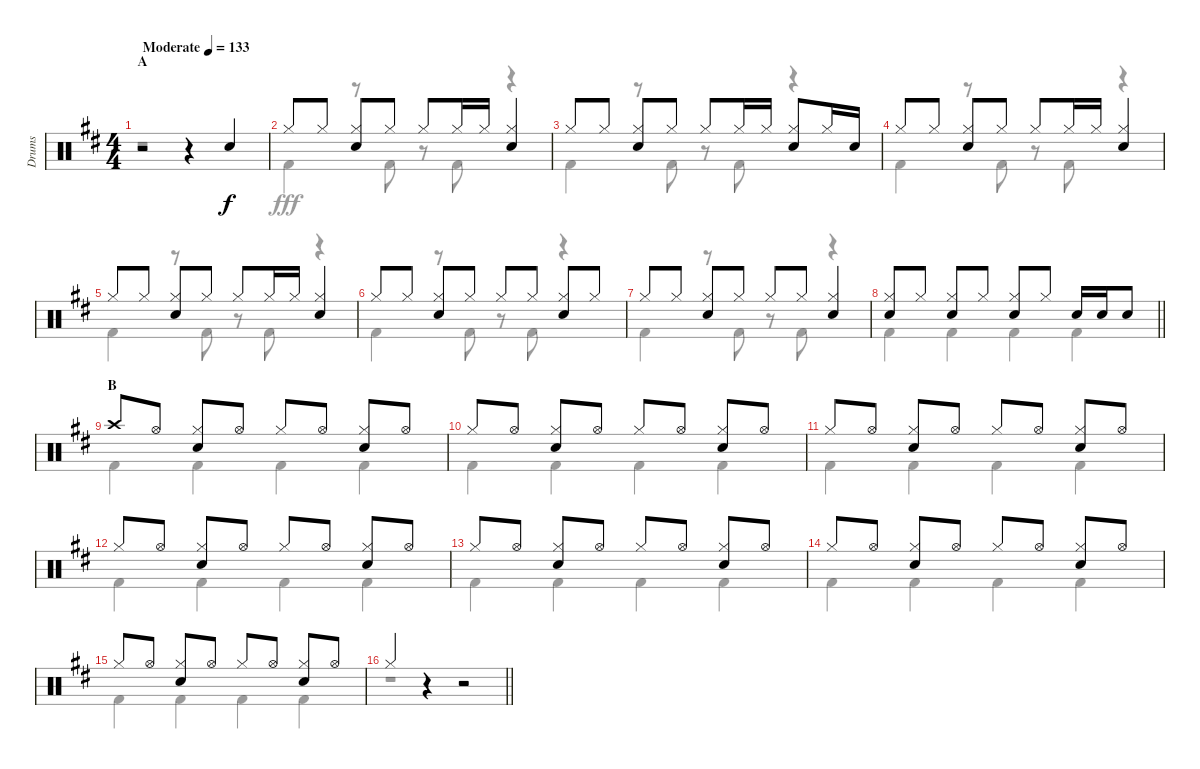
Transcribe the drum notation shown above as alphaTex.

\track ("Drums" "Drums") {instrument percussion}
\staff {score}
\articulation defaults
\voice
\ts (4 4)
\section ("" "A")
\tempo (133 "Moderate")
\clef neutral
\ks d
r.2{dy f} r.4 "Snare (hit) 2".4 |
"Hi-Hat (closed)".8 "Hi-Hat (closed)".8 ("Hi-Hat (closed)" "Snare (hit) 2").8 "Hi-Hat (closed)".8 "Hi-Hat (closed)".8 "Hi-Hat (closed)".16 "Hi-Hat (closed)".16 ("Hi-Hat (closed)" "Snare (hit) 2").4 |
"Hi-Hat (closed)".8 "Hi-Hat (closed)".8 ("Hi-Hat (closed)" "Snare (hit) 2").8 "Hi-Hat (closed)".8 "Hi-Hat (closed)".8 "Hi-Hat (closed)".16 "Hi-Hat (closed)".16 ("Hi-Hat (closed)" "Snare (hit) 2").8 "Hi-Hat (closed)".16 "Snare (hit) 2".16 |
"Hi-Hat (closed)".8 "Hi-Hat (closed)".8 ("Hi-Hat (closed)" "Snare (hit) 2").8 "Hi-Hat (closed)".8 "Hi-Hat (closed)".8 "Hi-Hat (closed)".16 "Hi-Hat (closed)".16 ("Hi-Hat (closed)" "Snare (hit) 2").4 |
"Hi-Hat (closed)".8 "Hi-Hat (closed)".8 ("Hi-Hat (closed)" "Snare (hit) 2").8 "Hi-Hat (closed)".8 "Hi-Hat (closed)".8 "Hi-Hat (closed)".16 "Hi-Hat (closed)".16 ("Hi-Hat (closed)" "Snare (hit) 2").4 |
"Hi-Hat (closed)".8 "Hi-Hat (closed)".8 ("Hi-Hat (closed)" "Snare (hit) 2").8 "Hi-Hat (closed)".8 "Hi-Hat (closed)".8 "Hi-Hat (closed)".8 ("Hi-Hat (closed)" "Snare (hit) 2").8 "Hi-Hat (closed)".8 |
"Hi-Hat (closed)".8 "Hi-Hat (closed)".8 ("Hi-Hat (closed)" "Snare (hit) 2").8 "Hi-Hat (closed)".8 "Hi-Hat (closed)".8 "Hi-Hat (closed)".8 ("Hi-Hat (closed)" "Snare (hit) 2").4 |
\barLineRight lightlight
("Hi-Hat (closed)" "Snare (hit) 2").8 "Hi-Hat (closed)".8 ("Hi-Hat (closed)" "Snare (hit) 2").8 "Hi-Hat (closed)".8 ("Hi-Hat (closed)" "Snare (hit) 2").8 "Hi-Hat (closed)".8 "Snare (hit) 2".16 "Snare (hit) 2".16 "Snare (hit) 2".8 |
\section ("" "B")
"Crash high (hit)".8 "Hi-Hat (open)".8 ("Hi-Hat (closed)" "Snare (hit) 2").8 "Hi-Hat (open)".8 "Hi-Hat (closed)".8 "Hi-Hat (open)".8 ("Hi-Hat (closed)" "Snare (hit) 2").8 "Hi-Hat (open)".8 |
"Hi-Hat (closed)".8 "Hi-Hat (open)".8 ("Hi-Hat (closed)" "Snare (hit) 2").8 "Hi-Hat (open)".8 "Hi-Hat (closed)".8 "Hi-Hat (open)".8 ("Hi-Hat (closed)" "Snare (hit) 2").8 "Hi-Hat (open)".8 |
"Hi-Hat (closed)".8 "Hi-Hat (open)".8 ("Hi-Hat (closed)" "Snare (hit) 2").8 "Hi-Hat (open)".8 "Hi-Hat (closed)".8 "Hi-Hat (open)".8 ("Hi-Hat (closed)" "Snare (hit) 2").8 "Hi-Hat (open)".8 |
"Hi-Hat (closed)".8 "Hi-Hat (open)".8 ("Hi-Hat (closed)" "Snare (hit) 2").8 "Hi-Hat (open)".8 "Hi-Hat (closed)".8 "Hi-Hat (open)".8 ("Hi-Hat (closed)" "Snare (hit) 2").8 "Hi-Hat (open)".8 |
"Hi-Hat (closed)".8 "Hi-Hat (open)".8 ("Hi-Hat (closed)" "Snare (hit) 2").8 "Hi-Hat (open)".8 "Hi-Hat (closed)".8 "Hi-Hat (open)".8 ("Hi-Hat (closed)" "Snare (hit) 2").8 "Hi-Hat (open)".8 |
"Hi-Hat (closed)".8 "Hi-Hat (open)".8 ("Hi-Hat (closed)" "Snare (hit) 2").8 "Hi-Hat (open)".8 "Hi-Hat (closed)".8 "Hi-Hat (open)".8 ("Hi-Hat (closed)" "Snare (hit) 2").8 "Hi-Hat (open)".8 |
"Hi-Hat (closed)".8 "Hi-Hat (open)".8 ("Hi-Hat (closed)" "Snare (hit) 2").8 "Hi-Hat (open)".8 "Hi-Hat (closed)".8 "Hi-Hat (open)".8 ("Hi-Hat (closed)" "Snare (hit) 2").8 "Hi-Hat (open)".8 |
\barLineRight lightlight "Hi-Hat (closed)".4
r.4 r.2
\voice
\clef neutral
\ottava regular
\simile none
\ks d
r.1{dy fff} |
"Kick (hit) 2".4 r.8 "Kick (hit) 2".8 r.8 "Kick (hit) 2".8 r.4 |
"Kick (hit) 2".4 r.8 "Kick (hit) 2".8 r.8 "Kick (hit) 2".8 r.4 |
"Kick (hit) 2".4 r.8 "Kick (hit) 2".8 r.8 "Kick (hit) 2".8 r.4 |
"Kick (hit) 2".4 r.8 "Kick (hit) 2".8 r.8 "Kick (hit) 2".8 r.4 |
"Kick (hit) 2".4 r.8 "Kick (hit) 2".8 r.8 "Kick (hit) 2".8 r.4 |
"Kick (hit) 2".4 r.8 "Kick (hit) 2".8 r.8 "Kick (hit) 2".8 r.4 |
\barLineRight lightlight "Kick (hit) 2".4 "Kick (hit) 2".4 "Kick (hit) 2".4 "Kick (hit) 2".4
|
"Kick (hit) 2".4 "Kick (hit) 2".4 "Kick (hit) 2".4 "Kick (hit) 2".4 |
"Kick (hit) 2".4 "Kick (hit) 2".4 "Kick (hit) 2".4 "Kick (hit) 2".4 |
"Kick (hit) 2".4 "Kick (hit) 2".4 "Kick (hit) 2".4 "Kick (hit) 2".4 |
"Kick (hit) 2".4 "Kick (hit) 2".4 "Kick (hit) 2".4 "Kick (hit) 2".4 |
"Kick (hit) 2".4 "Kick (hit) 2".4 "Kick (hit) 2".4 "Kick (hit) 2".4 |
"Kick (hit) 2".4 "Kick (hit) 2".4 "Kick (hit) 2".4 "Kick (hit) 2".4 |
"Kick (hit) 2".4 "Kick (hit) 2".4 "Kick (hit) 2".4 "Kick (hit) 2".4 |
\barLineRight lightlight
r.1
